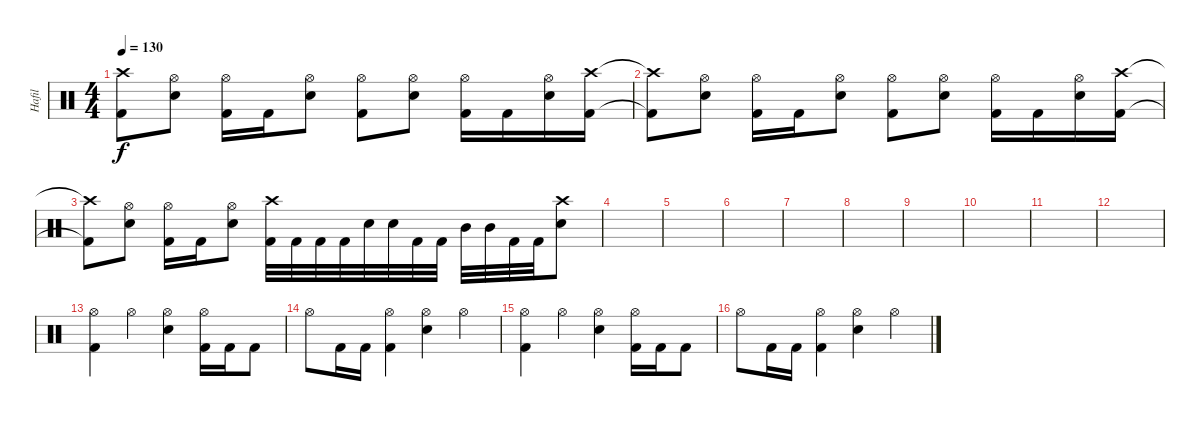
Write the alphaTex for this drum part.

\track ("Hafil" "Hafil") {instrument percussion}
\staff {score}
\articulation defaults
\ts (4 4)
\tempo 130
\clef neutral
\ks c
("Kick (hit) 2"{t} "Crash high (hit)"{t}).8{dy f} ("Electric Snare (hit)" "Hi-Hat (open)").8 ("Kick (hit) 2" "Hi-Hat (open)").16 "Kick (hit) 2".16 ("Electric Snare (hit)" "Hi-Hat (open)").8 ("Kick (hit) 2" "Hi-Hat (open)").8 ("Electric Snare (hit)" "Hi-Hat (open)").8 ("Kick (hit) 2" "Hi-Hat (open)").16 "Kick (hit) 2".16 ("Electric Snare (hit)" "Hi-Hat (open)").16 ("Kick (hit) 2" "Crash high (hit)").16 |
("Kick (hit) 2"{t} "Crash high (hit)"{t}).8 ("Electric Snare (hit)" "Hi-Hat (open)").8 ("Kick (hit) 2" "Hi-Hat (open)").16 "Kick (hit) 2".16 ("Electric Snare (hit)" "Hi-Hat (open)").8 ("Kick (hit) 2" "Hi-Hat (open)").8 ("Electric Snare (hit)" "Hi-Hat (open)").8 ("Kick (hit) 2" "Hi-Hat (open)").16 "Kick (hit) 2".16 ("Electric Snare (hit)" "Hi-Hat (open)").16 ("Kick (hit) 2" "Crash high (hit)").16 |
("Kick (hit) 2"{t} "Crash high (hit)"{t}).8 ("Electric Snare (hit)" "Hi-Hat (open)").8 ("Kick (hit) 2" "Hi-Hat (open)").16 "Kick (hit) 2".16 ("Electric Snare (hit)" "Hi-Hat (open)").8 ("Kick (hit) 2" "Crash high (hit)").32 "Kick (hit) 2".32 "Kick (hit) 2".32 "Kick (hit) 2".32 "Electric Snare (hit)".32 "Electric Snare (hit)".32 "Kick (hit) 2".32 "Kick (hit) 2".32 "Mid Tom (hit)".32 "Mid Tom (hit)".32 "Kick (hit) 2".32 "Kick (hit) 2".32 ("Electric Snare (hit)" "Crash high (hit)").8 |
|
|
|
|
|
|
|
|
|
("Hi-Hat (open)" "Kick (hit) 2").4 "Hi-Hat (open)".4 ("Hi-Hat (open)" "Electric Snare (hit)").4 ("Hi-Hat (open)" "Kick (hit) 2").16 "Kick (hit) 2".16 "Kick (hit) 2".8 |
"Hi-Hat (open)".8 "Kick (hit) 2".16 "Kick (hit) 2".16 ("Kick (hit) 2" "Hi-Hat (open)").4 ("Hi-Hat (open)" "Electric Snare (hit)").4 "Hi-Hat (open)".4 |
("Hi-Hat (open)" "Kick (hit) 2").4 "Hi-Hat (open)".4 ("Hi-Hat (open)" "Electric Snare (hit)").4 ("Hi-Hat (open)" "Kick (hit) 2").16 "Kick (hit) 2".16 "Kick (hit) 2".8 |
"Hi-Hat (open)".8 "Kick (hit) 2".16 "Kick (hit) 2".16 ("Kick (hit) 2" "Hi-Hat (open)").4 ("Hi-Hat (open)" "Electric Snare (hit)").4 "Hi-Hat (open)".4
